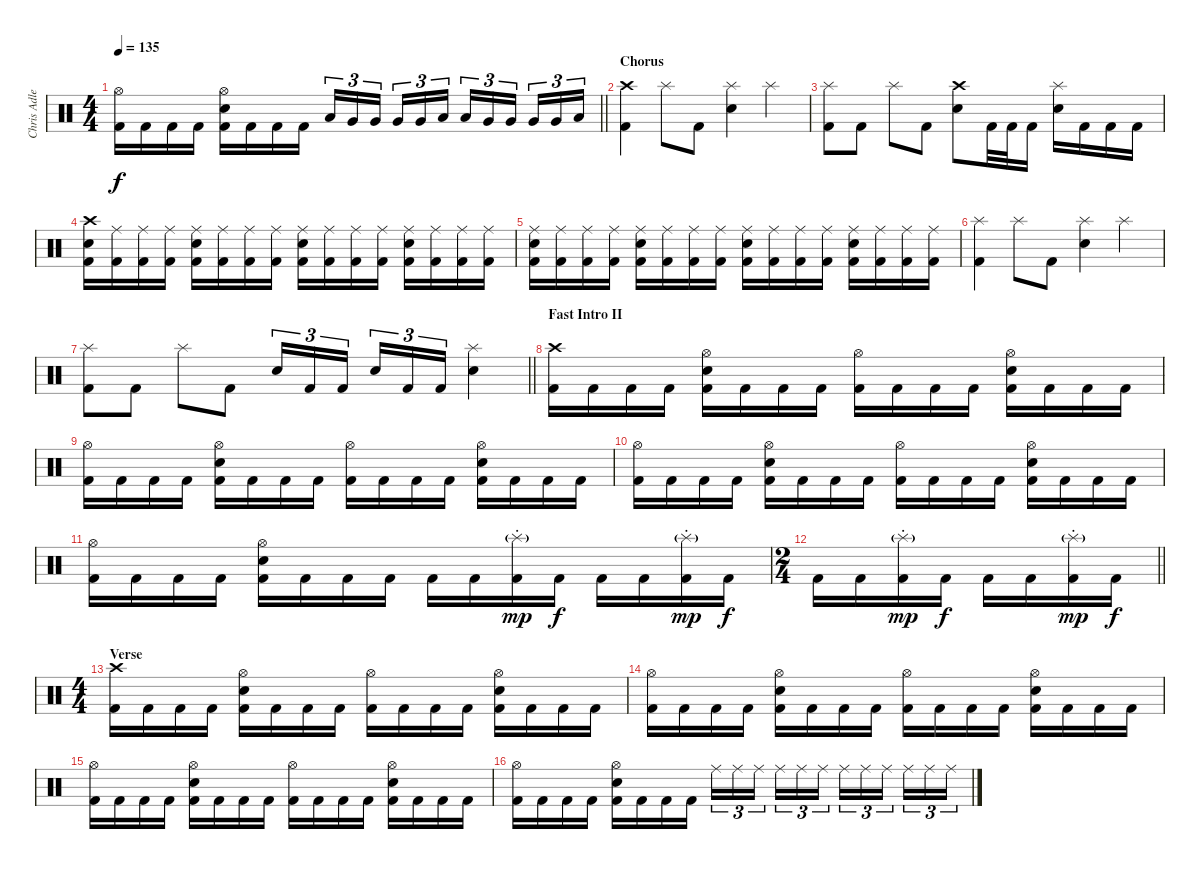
\track ("Chris Adler" "Chris Adle") {instrument percussion}
\staff {score}
\articulation defaults
\ts (4 4)
\tempo 135
\clef neutral
\barLineRight lightlight
\ks c
("Hi-Hat (open)" "Kick (hit) 2").16{dy f} "Kick (hit) 2".16 "Kick (hit) 2".16 "Kick (hit) 2".16 ("Hi-Hat (open)" "Electric Snare (hit)" "Kick (hit) 2").16 "Kick (hit) 2".16 "Kick (hit) 2".16 "Kick (hit) 2".16 "Low Tom (hit)".16{tu (3 2)} "Very Low Tom (hit)".16{tu (3 2)} "Very Low Tom (hit)".16{tu (3 2) beam splitsecondary} "Very Low Tom (hit)".16{tu (3 2)} "Very Low Tom (hit)".16{tu (3 2)} "Low Floor Tom (hit)".16{tu (3 2)} "Low Tom (hit)".16{tu (3 2)} "Very Low Tom (hit)".16{tu (3 2)} "Very Low Tom (hit)".16{tu (3 2) beam splitsecondary} "Very Low Tom (hit)".16{tu (3 2)} "Very Low Tom (hit)".16{tu (3 2)} "Low Floor Tom (hit)".16{tu (3 2)} |
\section ("" "Chorus")
("Crash high (hit)" "Kick (hit) 2").4 "Splash (hit)".8 "Kick (hit) 2".8 ("Splash (hit)" "Electric Snare (hit)").4 "Splash (hit)".4 |
("Splash (hit)" "Kick (hit) 2").8 "Kick (hit) 2".8 "Splash (hit)".8 "Kick (hit) 2".8 ("Crash high (hit)" "Electric Snare (hit)").8 "Kick (hit) 2".32 "Kick (hit) 2".32 "Kick (hit) 2".16 ("Splash (hit)" "Electric Snare (hit)").16 "Kick (hit) 2".16 "Kick (hit) 2".16 "Kick (hit) 2".16 |
("Crash high (hit)" "Electric Snare (hit)" "Kick (hit) 2").16 ("Ride (middle)" "Kick (hit) 2").16 ("Ride (middle)" "Kick (hit) 2").16 ("Ride (middle)" "Kick (hit) 2").16 ("Ride (middle)" "Electric Snare (hit)" "Kick (hit) 2").16 ("Ride (middle)" "Kick (hit) 2").16 ("Ride (middle)" "Kick (hit) 2").16 ("Ride (middle)" "Kick (hit) 2").16 ("Ride (middle)" "Electric Snare (hit)" "Kick (hit) 2").16 ("Ride (middle)" "Kick (hit) 2").16 ("Ride (middle)" "Kick (hit) 2").16 ("Ride (middle)" "Kick (hit) 2").16 ("Ride (middle)" "Electric Snare (hit)" "Kick (hit) 2").16 ("Ride (middle)" "Kick (hit) 2").16 ("Ride (middle)" "Kick (hit) 2").16 ("Ride (middle)" "Kick (hit) 2").16 |
("Ride (middle)" "Electric Snare (hit)" "Kick (hit) 2").16 ("Ride (middle)" "Kick (hit) 2").16 ("Ride (middle)" "Kick (hit) 2").16 ("Ride (middle)" "Kick (hit) 2").16 ("Ride (middle)" "Electric Snare (hit)" "Kick (hit) 2").16 ("Ride (middle)" "Kick (hit) 2").16 ("Ride (middle)" "Kick (hit) 2").16 ("Ride (middle)" "Kick (hit) 2").16 ("Ride (middle)" "Electric Snare (hit)" "Kick (hit) 2").16 ("Ride (middle)" "Kick (hit) 2").16 ("Ride (middle)" "Kick (hit) 2").16 ("Ride (middle)" "Kick (hit) 2").16 ("Ride (middle)" "Electric Snare (hit)" "Kick (hit) 2").16 ("Ride (middle)" "Kick (hit) 2").16 ("Ride (middle)" "Kick (hit) 2").16 ("Ride (middle)" "Kick (hit) 2").16 |
("Splash (hit)" "Kick (hit) 2").4 "Splash (hit)".8 "Kick (hit) 2".8 ("Splash (hit)" "Electric Snare (hit)").4 "Splash (hit)".4 |
\barLineRight lightlight
("Splash (hit)" "Kick (hit) 2").8 "Kick (hit) 2".8 "Splash (hit)".8 "Kick (hit) 2".8 "Electric Snare (hit)".16{tu (3 2)} "Kick (hit) 2".16{tu (3 2)} "Kick (hit) 2".16{tu (3 2) beam splitsecondary} "Electric Snare (hit)".16{tu (3 2)} "Kick (hit) 2".16{tu (3 2)} "Kick (hit) 2".16{tu (3 2)} ("Splash (hit)" "Electric Snare (hit)").4 |
\section ("" "Fast Intro II")
("Crash high (hit)" "Kick (hit) 2").16 "Kick (hit) 2".16 "Kick (hit) 2".16 "Kick (hit) 2".16 ("Hi-Hat (open)" "Electric Snare (hit)" "Kick (hit) 2").16 "Kick (hit) 2".16 "Kick (hit) 2".16 "Kick (hit) 2".16 ("Hi-Hat (open)" "Kick (hit) 2").16 "Kick (hit) 2".16 "Kick (hit) 2".16 "Kick (hit) 2".16 ("Hi-Hat (open)" "Electric Snare (hit)" "Kick (hit) 2").16 "Kick (hit) 2".16 "Kick (hit) 2".16 "Kick (hit) 2".16 |
("Hi-Hat (open)" "Kick (hit) 2").16 "Kick (hit) 2".16 "Kick (hit) 2".16 "Kick (hit) 2".16 ("Hi-Hat (open)" "Electric Snare (hit)" "Kick (hit) 2").16 "Kick (hit) 2".16 "Kick (hit) 2".16 "Kick (hit) 2".16 ("Hi-Hat (open)" "Kick (hit) 2").16 "Kick (hit) 2".16 "Kick (hit) 2".16 "Kick (hit) 2".16 ("Hi-Hat (open)" "Electric Snare (hit)" "Kick (hit) 2").16 "Kick (hit) 2".16 "Kick (hit) 2".16 "Kick (hit) 2".16 |
("Hi-Hat (open)" "Kick (hit) 2").16 "Kick (hit) 2".16 "Kick (hit) 2".16 "Kick (hit) 2".16 ("Hi-Hat (open)" "Electric Snare (hit)" "Kick (hit) 2").16 "Kick (hit) 2".16 "Kick (hit) 2".16 "Kick (hit) 2".16 ("Hi-Hat (open)" "Kick (hit) 2").16 "Kick (hit) 2".16 "Kick (hit) 2".16 "Kick (hit) 2".16 ("Hi-Hat (open)" "Electric Snare (hit)" "Kick (hit) 2").16 "Kick (hit) 2".16 "Kick (hit) 2".16 "Kick (hit) 2".16 |
("Hi-Hat (open)" "Kick (hit) 2").16 "Kick (hit) 2".16 "Kick (hit) 2".16 "Kick (hit) 2".16 ("Hi-Hat (open)" "Electric Snare (hit)" "Kick (hit) 2").16 "Kick (hit) 2".16 "Kick (hit) 2".16 "Kick (hit) 2".16 "Kick (hit) 2".16 "Kick (hit) 2".16 ("Splash (hit)"{g st} "Kick (hit) 2").16{dy mp} "Kick (hit) 2".16{dy f} "Kick (hit) 2".16 "Kick (hit) 2".16 ("Splash (hit)"{g st} "Kick (hit) 2").16{dy mp} "Kick (hit) 2".16{dy f} |
\ts (2 4)
\barLineRight lightlight "Kick (hit) 2".16 "Kick (hit) 2".16
("Splash (hit)"{g st} "Kick (hit) 2").16{dy mp} "Kick (hit) 2".16{dy f} "Kick (hit) 2".16 "Kick (hit) 2".16 ("Splash (hit)"{g st} "Kick (hit) 2").16{dy mp} "Kick (hit) 2".16{dy f} |
\ts (4 4)
\section ("" "Verse")
("Crash high (hit)" "Kick (hit) 2").16 "Kick (hit) 2".16 "Kick (hit) 2".16 "Kick (hit) 2".16 ("Hi-Hat (open)" "Electric Snare (hit)" "Kick (hit) 2").16 "Kick (hit) 2".16 "Kick (hit) 2".16 "Kick (hit) 2".16 ("Hi-Hat (open)" "Kick (hit) 2").16 "Kick (hit) 2".16 "Kick (hit) 2".16 "Kick (hit) 2".16 ("Hi-Hat (open)" "Electric Snare (hit)" "Kick (hit) 2").16 "Kick (hit) 2".16 "Kick (hit) 2".16 "Kick (hit) 2".16 |
("Hi-Hat (open)" "Kick (hit) 2").16 "Kick (hit) 2".16 "Kick (hit) 2".16 "Kick (hit) 2".16 ("Hi-Hat (open)" "Electric Snare (hit)" "Kick (hit) 2").16 "Kick (hit) 2".16 "Kick (hit) 2".16 "Kick (hit) 2".16 ("Hi-Hat (open)" "Kick (hit) 2").16 "Kick (hit) 2".16 "Kick (hit) 2".16 "Kick (hit) 2".16 ("Hi-Hat (open)" "Electric Snare (hit)" "Kick (hit) 2").16 "Kick (hit) 2".16 "Kick (hit) 2".16 "Kick (hit) 2".16 |
("Hi-Hat (open)" "Kick (hit) 2").16 "Kick (hit) 2".16 "Kick (hit) 2".16 "Kick (hit) 2".16 ("Hi-Hat (open)" "Electric Snare (hit)" "Kick (hit) 2").16 "Kick (hit) 2".16 "Kick (hit) 2".16 "Kick (hit) 2".16 ("Hi-Hat (open)" "Kick (hit) 2").16 "Kick (hit) 2".16 "Kick (hit) 2".16 "Kick (hit) 2".16 ("Hi-Hat (open)" "Electric Snare (hit)" "Kick (hit) 2").16 "Kick (hit) 2".16 "Kick (hit) 2".16 "Kick (hit) 2".16 |
("Hi-Hat (open)" "Kick (hit) 2").16 "Kick (hit) 2".16 "Kick (hit) 2".16 "Kick (hit) 2".16 ("Hi-Hat (open)" "Electric Snare (hit)" "Kick (hit) 2").16 "Kick (hit) 2".16 "Kick (hit) 2".16 "Kick (hit) 2".16 "Ride (middle)".16{tu (3 2)} "Ride (middle)".16{tu (3 2)} "Ride (middle)".16{tu (3 2) beam splitsecondary} "Ride (middle)".16{tu (3 2)} "Ride (middle)".16{tu (3 2)} "Ride (middle)".16{tu (3 2)} "Ride (middle)".16{tu (3 2)} "Ride (middle)".16{tu (3 2)} "Ride (middle)".16{tu (3 2) beam splitsecondary} "Ride (middle)".16{tu (3 2)} "Ride (middle)".16{tu (3 2)} "Ride (middle)".16{tu (3 2)}
